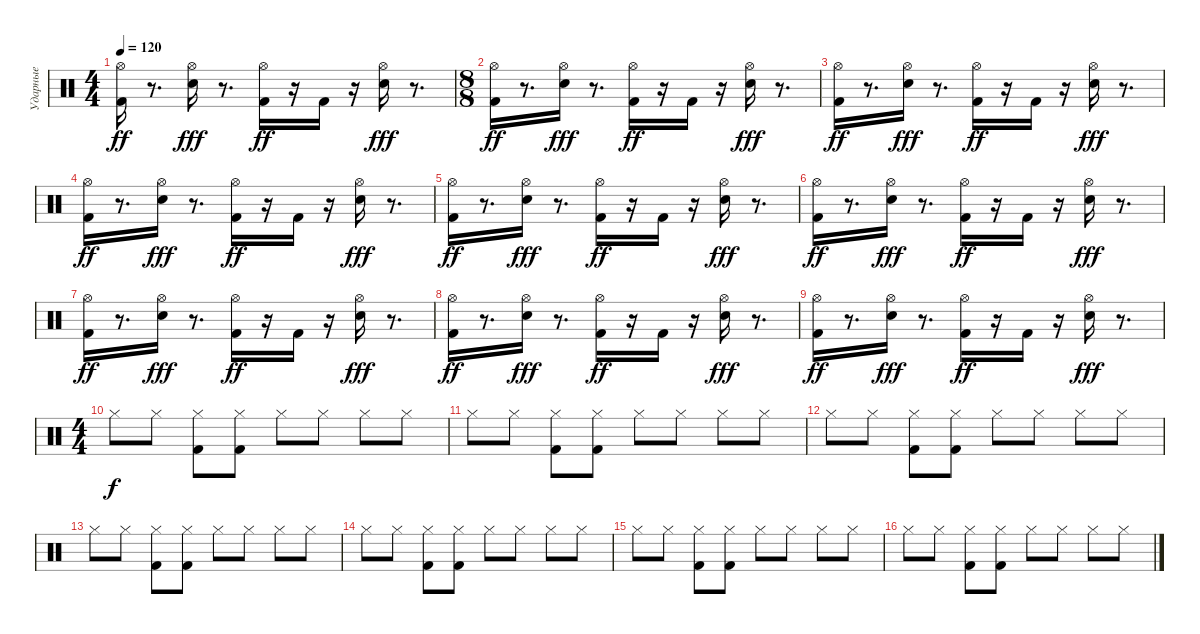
\track ("Ударные" "Ударные") {instrument percussion}
\staff {score}
\articulation defaults
\ts (4 4)
\tempo 120
\clef neutral
\ks c
("Kick (hit) 2" "Hi-Hat (open)").16{dy ff} r.8{d} ("Snare (hit) 2" "Hi-Hat (open)").16{dy fff} r.8{d} ("Kick (hit) 2" "Hi-Hat (open)").16{dy ff} r.16 "Kick (hit) 2".16 r.16 ("Snare (hit) 2" "Hi-Hat (open)").16{dy fff} r.8{d} |
\ts (8 8)
("Kick (hit) 2" "Hi-Hat (open)").16{dy ff} r.8{d} ("Snare (hit) 2" "Hi-Hat (open)").16{dy fff} r.8{d} ("Kick (hit) 2" "Hi-Hat (open)").16{dy ff} r.16 "Kick (hit) 2".16 r.16 ("Snare (hit) 2" "Hi-Hat (open)").16{dy fff} r.8{d} |
("Kick (hit) 2" "Hi-Hat (open)").16{dy ff} r.8{d} ("Snare (hit) 2" "Hi-Hat (open)").16{dy fff} r.8{d} ("Kick (hit) 2" "Hi-Hat (open)").16{dy ff} r.16 "Kick (hit) 2".16 r.16 ("Snare (hit) 2" "Hi-Hat (open)").16{dy fff} r.8{d} |
("Kick (hit) 2" "Hi-Hat (open)").16{dy ff} r.8{d} ("Snare (hit) 2" "Hi-Hat (open)").16{dy fff} r.8{d} ("Kick (hit) 2" "Hi-Hat (open)").16{dy ff} r.16 "Kick (hit) 2".16 r.16 ("Snare (hit) 2" "Hi-Hat (open)").16{dy fff} r.8{d} |
("Kick (hit) 2" "Hi-Hat (open)").16{dy ff} r.8{d} ("Snare (hit) 2" "Hi-Hat (open)").16{dy fff} r.8{d} ("Kick (hit) 2" "Hi-Hat (open)").16{dy ff} r.16 "Kick (hit) 2".16 r.16 ("Snare (hit) 2" "Hi-Hat (open)").16{dy fff} r.8{d} |
("Kick (hit) 2" "Hi-Hat (open)").16{dy ff} r.8{d} ("Snare (hit) 2" "Hi-Hat (open)").16{dy fff} r.8{d} ("Kick (hit) 2" "Hi-Hat (open)").16{dy ff} r.16 "Kick (hit) 2".16 r.16 ("Snare (hit) 2" "Hi-Hat (open)").16{dy fff} r.8{d} |
("Kick (hit) 2" "Hi-Hat (open)").16{dy ff} r.8{d} ("Snare (hit) 2" "Hi-Hat (open)").16{dy fff} r.8{d} ("Kick (hit) 2" "Hi-Hat (open)").16{dy ff} r.16 "Kick (hit) 2".16 r.16 ("Snare (hit) 2" "Hi-Hat (open)").16{dy fff} r.8{d} |
("Kick (hit) 2" "Hi-Hat (open)").16{dy ff} r.8{d} ("Snare (hit) 2" "Hi-Hat (open)").16{dy fff} r.8{d} ("Kick (hit) 2" "Hi-Hat (open)").16{dy ff} r.16 "Kick (hit) 2".16 r.16 ("Snare (hit) 2" "Hi-Hat (open)").16{dy fff} r.8{d} |
("Kick (hit) 2" "Hi-Hat (open)").16{dy ff} r.8{d} ("Snare (hit) 2" "Hi-Hat (open)").16{dy fff} r.8{d} ("Kick (hit) 2" "Hi-Hat (open)").16{dy ff} r.16 "Kick (hit) 2".16 r.16 ("Snare (hit) 2" "Hi-Hat (open)").16{dy fff} r.8{d} |
\ts (4 4)
"Hi-Hat (closed)".8{dy f} "Hi-Hat (closed)".8 ("Hi-Hat (closed)" "Kick (hit) 2").8 ("Hi-Hat (closed)" "Kick (hit) 2").8 "Hi-Hat (closed)".8 "Hi-Hat (closed)".8 "Hi-Hat (closed)".8 "Hi-Hat (closed)".8 |
"Hi-Hat (closed)".8 "Hi-Hat (closed)".8 ("Hi-Hat (closed)" "Kick (hit) 2").8 ("Hi-Hat (closed)" "Kick (hit) 2").8 "Hi-Hat (closed)".8 "Hi-Hat (closed)".8 "Hi-Hat (closed)".8 "Hi-Hat (closed)".8 |
"Hi-Hat (closed)".8 "Hi-Hat (closed)".8 ("Hi-Hat (closed)" "Kick (hit) 2").8 ("Hi-Hat (closed)" "Kick (hit) 2").8 "Hi-Hat (closed)".8 "Hi-Hat (closed)".8 "Hi-Hat (closed)".8 "Hi-Hat (closed)".8 |
"Hi-Hat (closed)".8 "Hi-Hat (closed)".8 ("Hi-Hat (closed)" "Kick (hit) 2").8 ("Hi-Hat (closed)" "Kick (hit) 2").8 "Hi-Hat (closed)".8 "Hi-Hat (closed)".8 "Hi-Hat (closed)".8 "Hi-Hat (closed)".8 |
"Hi-Hat (closed)".8 "Hi-Hat (closed)".8 ("Hi-Hat (closed)" "Kick (hit) 2").8 ("Hi-Hat (closed)" "Kick (hit) 2").8 "Hi-Hat (closed)".8 "Hi-Hat (closed)".8 "Hi-Hat (closed)".8 "Hi-Hat (closed)".8 |
"Hi-Hat (closed)".8 "Hi-Hat (closed)".8 ("Hi-Hat (closed)" "Kick (hit) 2").8 ("Hi-Hat (closed)" "Kick (hit) 2").8 "Hi-Hat (closed)".8 "Hi-Hat (closed)".8 "Hi-Hat (closed)".8 "Hi-Hat (closed)".8 |
"Hi-Hat (closed)".8 "Hi-Hat (closed)".8 ("Hi-Hat (closed)" "Kick (hit) 2").8 ("Hi-Hat (closed)" "Kick (hit) 2").8 "Hi-Hat (closed)".8 "Hi-Hat (closed)".8 "Hi-Hat (closed)".8 "Hi-Hat (closed)".8
